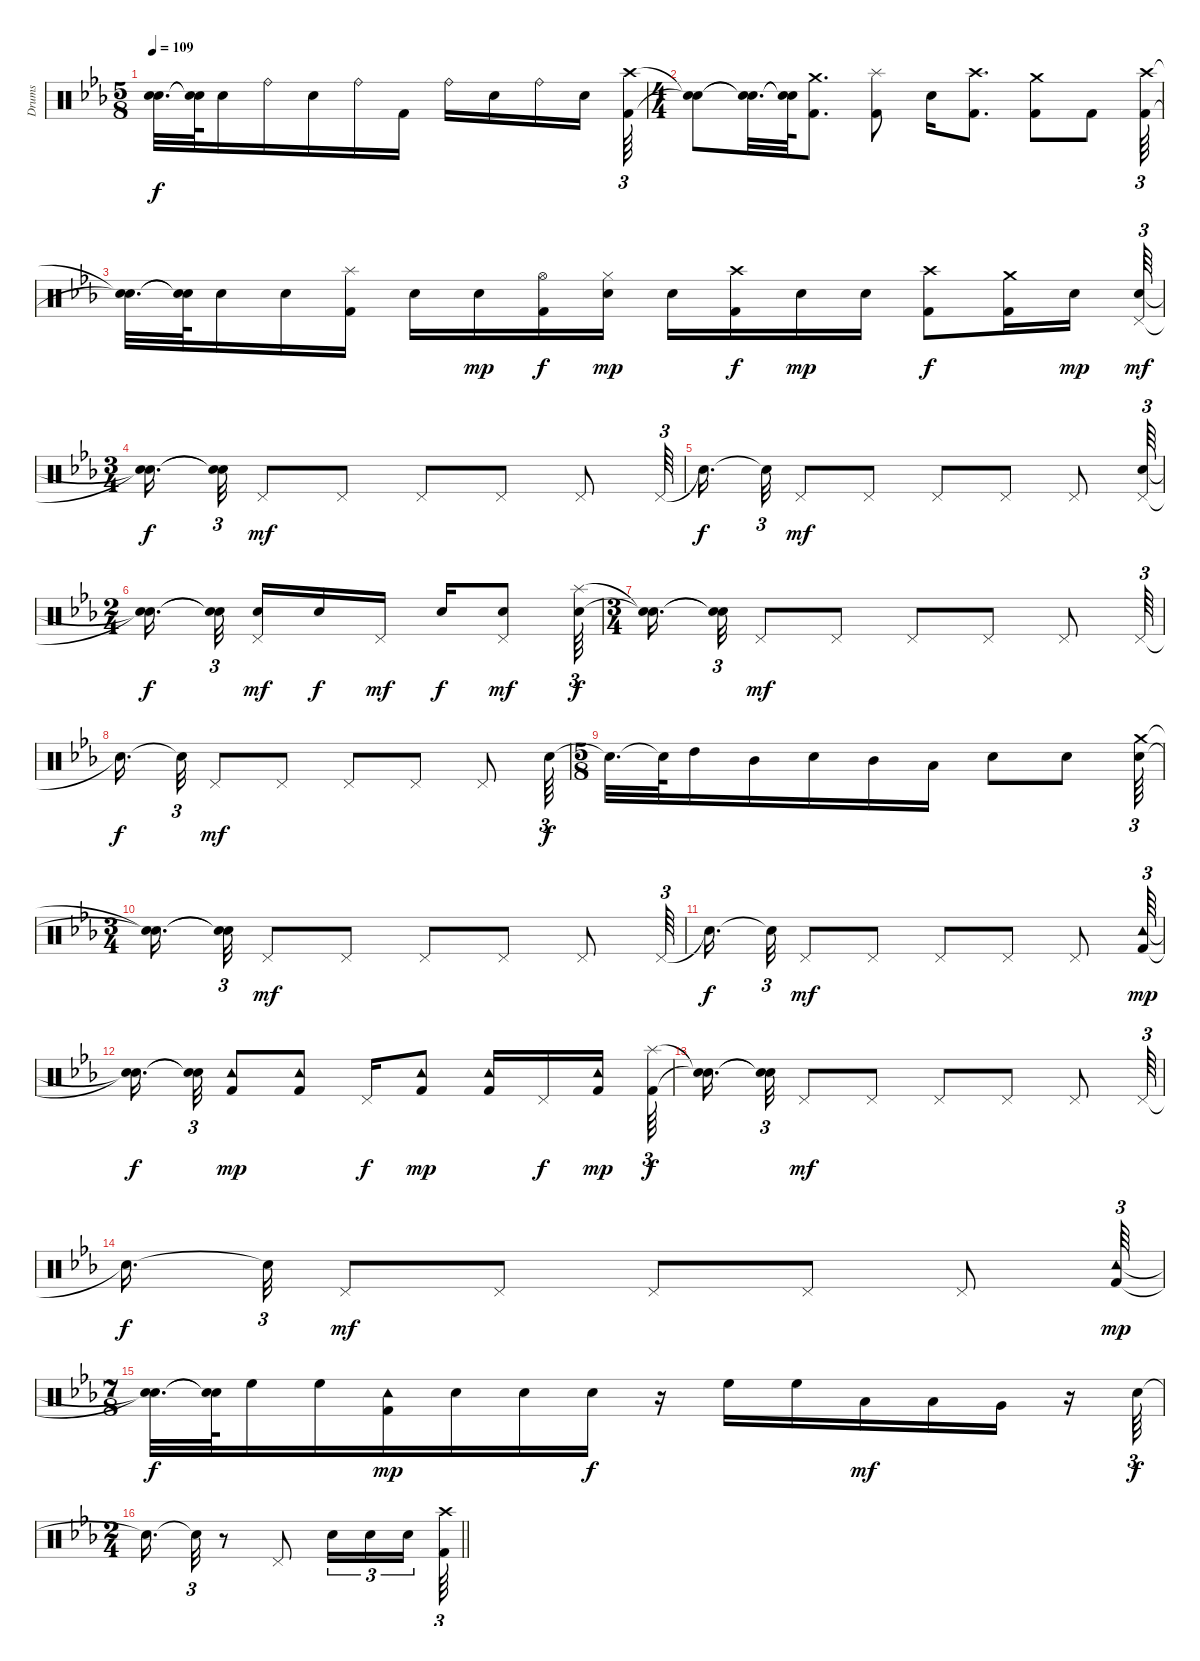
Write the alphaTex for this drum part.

\track ("Drums" "Drums") {instrument percussion}
\staff {score}
\articulation defaults
\ts (5 8)
\tempo 109
\clef neutral
\ks cminor
("Snare (hit)"{t} "Snare (hit)"{t}).32{d dy f} ("Snare (hit)"{t} "Snare (hit)"{t}).64 "Electric Snare (hit)".16 "Ride (bell)".16 "Electric Snare (hit)".16 "Ride (bell)".16 "Kick (hit) 2".16 "Ride (bell)".16 "Electric Snare (hit)".16 "Ride (bell)".16 "Electric Snare (hit)".16 ("Crash high (hit)" "Kick (hit) 2").64{tu (3 2)} |
\ts (4 4)
("Snare (hit)"{t} "Snare (hit)"{t}).8 ("Snare (hit)"{t} "Snare (hit)"{t}).32{d} ("Snare (hit)"{t} "Snare (hit)"{t}).64 ("Crash medium (hit)" "Kick (hit) 2").8{d} ("Kick (hit) 2" "Splash (hit)").8 "Electric Snare (hit)".16 ("Crash high (hit)" "Kick (hit) 2").8{d} ("Kick (hit) 2" "Crash medium (hit)").8 "Kick (hit) 2".8 ("Kick (hit) 2" "Crash high (hit)").64{tu (3 2)} |
("Snare (hit)"{t} "Snare (hit)"{t}).32{d} ("Snare (hit)"{t} "Snare (hit)"{t}).64 "Electric Snare (hit)".16 "Electric Snare (hit)".16 ("Kick (hit) 2" "Splash (hit)").16 "Electric Snare (hit)".16 "Electric Snare (hit)".16{dy mp} ("Kick (hit) 2" "Hi-Hat (open)").16{dy f} ("Hi-Hat (closed)" "Electric Snare (hit)").16{dy mp} "Electric Snare (hit)".16 ("Kick (hit) 2" "Crash high (hit)").16{dy f} "Electric Snare (hit)".16{dy mp} "Electric Snare (hit)".16 ("Kick (hit) 2" "Crash high (hit)").8{dy f} ("Crash medium (hit)" "Kick (hit) 2").16 "Electric Snare (hit)".16{dy mp} ("Electric Snare (hit)" "Pedal Hi-Hat (hit)").64{tu (3 2) dy mf} |
\ts (3 4)
("Snare (hit)"{t} "Snare (hit)"{t}).16{d dy f beam splitsecondary} ("Snare (hit)"{t} "Snare (hit)"{t}).32{tu (3 2)} "Pedal Hi-Hat (hit)".8{dy mf} "Pedal Hi-Hat (hit)".8 "Pedal Hi-Hat (hit)".8 "Pedal Hi-Hat (hit)".8 "Pedal Hi-Hat (hit)".8 "Pedal Hi-Hat (hit)".64{tu (3 2)} |
"Snare (hit)"{t}.16{d dy f beam splitsecondary} "Snare (hit)"{t}.32{tu (3 2)} "Pedal Hi-Hat (hit)".8{dy mf} "Pedal Hi-Hat (hit)".8 "Pedal Hi-Hat (hit)".8 "Pedal Hi-Hat (hit)".8 "Pedal Hi-Hat (hit)".8 ("Electric Snare (hit)" "Pedal Hi-Hat (hit)").64{tu (3 2)} |
\ts (2 4)
("Snare (hit)"{t} "Snare (hit)"{t}).16{d dy f beam splitsecondary} ("Snare (hit)"{t} "Snare (hit)"{t}).32{tu (3 2) beam splitsecondary} ("Electric Snare (hit)" "Pedal Hi-Hat (hit)").16{dy mf} "Electric Snare (hit)".16{dy f} "Pedal Hi-Hat (hit)".16{dy mf} "Electric Snare (hit)".16{dy f} ("Electric Snare (hit)" "Pedal Hi-Hat (hit)").8{dy mf} ("Splash (hit)" "Electric Snare (hit)").64{tu (3 2) dy f} |
\ts (3 4)
("Snare (hit)"{t} "Snare (hit)"{t}).16{d beam splitsecondary} ("Snare (hit)"{t} "Snare (hit)"{t}).32{tu (3 2)} "Pedal Hi-Hat (hit)".8{dy mf} "Pedal Hi-Hat (hit)".8 "Pedal Hi-Hat (hit)".8 "Pedal Hi-Hat (hit)".8 "Pedal Hi-Hat (hit)".8 "Pedal Hi-Hat (hit)".64{tu (3 2)} |
"Snare (hit)"{t}.16{d dy f beam splitsecondary} "Snare (hit)"{t}.32{tu (3 2)} "Pedal Hi-Hat (hit)".8{dy mf} "Pedal Hi-Hat (hit)".8 "Pedal Hi-Hat (hit)".8 "Pedal Hi-Hat (hit)".8 "Pedal Hi-Hat (hit)".8 "Electric Snare (hit)".64{tu (3 2) dy f} |
\ts (5 8)
"Snare (hit)"{t}.32{d} "Snare (hit)"{t}.64 "High Tom (hit)".16 "Mid Tom (hit)".16 "Electric Snare (hit)".16 "Mid Tom (hit)".16 "Low Tom (hit)".16 "Electric Snare (hit)".8 "Electric Snare (hit)".8 ("Electric Snare (hit)" "Crash medium (hit)").64{tu (3 2)} |
\ts (3 4)
("Snare (hit)"{t} "Snare (hit)"{t}).16{d beam splitsecondary} ("Snare (hit)"{t} "Snare (hit)"{t}).32{tu (3 2)} "Pedal Hi-Hat (hit)".8{dy mf} "Pedal Hi-Hat (hit)".8 "Pedal Hi-Hat (hit)".8 "Pedal Hi-Hat (hit)".8 "Pedal Hi-Hat (hit)".8 "Pedal Hi-Hat (hit)".64{tu (3 2)} |
"Snare (hit)"{t}.16{d dy f beam splitsecondary} "Snare (hit)"{t}.32{tu (3 2)} "Pedal Hi-Hat (hit)".8{dy mf} "Pedal Hi-Hat (hit)".8 "Pedal Hi-Hat (hit)".8 "Pedal Hi-Hat (hit)".8 "Pedal Hi-Hat (hit)".8 ("Kick (hit) 2" "Tambourine (hit)").64{tu (3 2) dy mp} |
("Snare (hit)"{t} "Snare (hit)"{t}).16{d dy f beam splitsecondary} ("Snare (hit)"{t} "Snare (hit)"{t}).32{tu (3 2)} ("Kick (hit) 2" "Tambourine (hit)").8{dy mp} ("Kick (hit) 2" "Tambourine (hit)").8 "Pedal Hi-Hat (hit)".16{dy f} ("Kick (hit) 2" "Tambourine (hit)").8{dy mp} ("Kick (hit) 2" "Tambourine (hit)").16 "Pedal Hi-Hat (hit)".16{dy f} ("Kick (hit) 2" "Tambourine (hit)").16{dy mp beam splitsecondary} ("Splash (hit)" "Kick (hit) 2").64{tu (3 2) dy f} |
("Snare (hit)"{t} "Snare (hit)"{t}).16{d beam splitsecondary} ("Snare (hit)"{t} "Snare (hit)"{t}).32{tu (3 2)} "Pedal Hi-Hat (hit)".8{dy mf} "Pedal Hi-Hat (hit)".8 "Pedal Hi-Hat (hit)".8 "Pedal Hi-Hat (hit)".8 "Pedal Hi-Hat (hit)".8 "Pedal Hi-Hat (hit)".64{tu (3 2)} |
"Snare (hit)"{t}.16{d dy f beam splitsecondary} "Snare (hit)"{t}.32{tu (3 2)} "Pedal Hi-Hat (hit)".8{dy mf} "Pedal Hi-Hat (hit)".8 "Pedal Hi-Hat (hit)".8 "Pedal Hi-Hat (hit)".8 "Pedal Hi-Hat (hit)".8 ("Kick (hit) 2" "Tambourine (hit)").64{tu (3 2) dy mp} |
\ts (7 8)
("Snare (hit)"{t} "Snare (hit)"{t}).32{d dy f} ("Snare (hit)"{t} "Snare (hit)"{t}).64 "High Floor Tom (hit)".16 "High Floor Tom (hit)".16 ("Kick (hit) 2" "Tambourine (hit)").16{dy mp} "Electric Snare (hit)".16 "Electric Snare (hit)".16 "Electric Snare (hit)".16{dy f} r.16 "High Floor Tom (hit)".16 "High Floor Tom (hit)".16 "Low Tom (hit)".16{dy mf} "Low Tom (hit)".16 "Very Low Tom (hit)".16 r.16 "Electric Snare (hit)".64{tu (3 2) dy f} |
\ts (2 4)
\barLineRight lightlight "Snare (hit)"{t}.16{d} "Snare (hit)"{t}.32{tu (3 2)}
r.8 "Pedal Hi-Hat (hit)".8 "Electric Snare (hit)".16{tu (3 2)} "Electric Snare (hit)".16{tu (3 2)} "Electric Snare (hit)".16{tu (3 2) beam splitsecondary} ("Crash high (hit)" "Kick (hit) 2").64{tu (3 2)}
